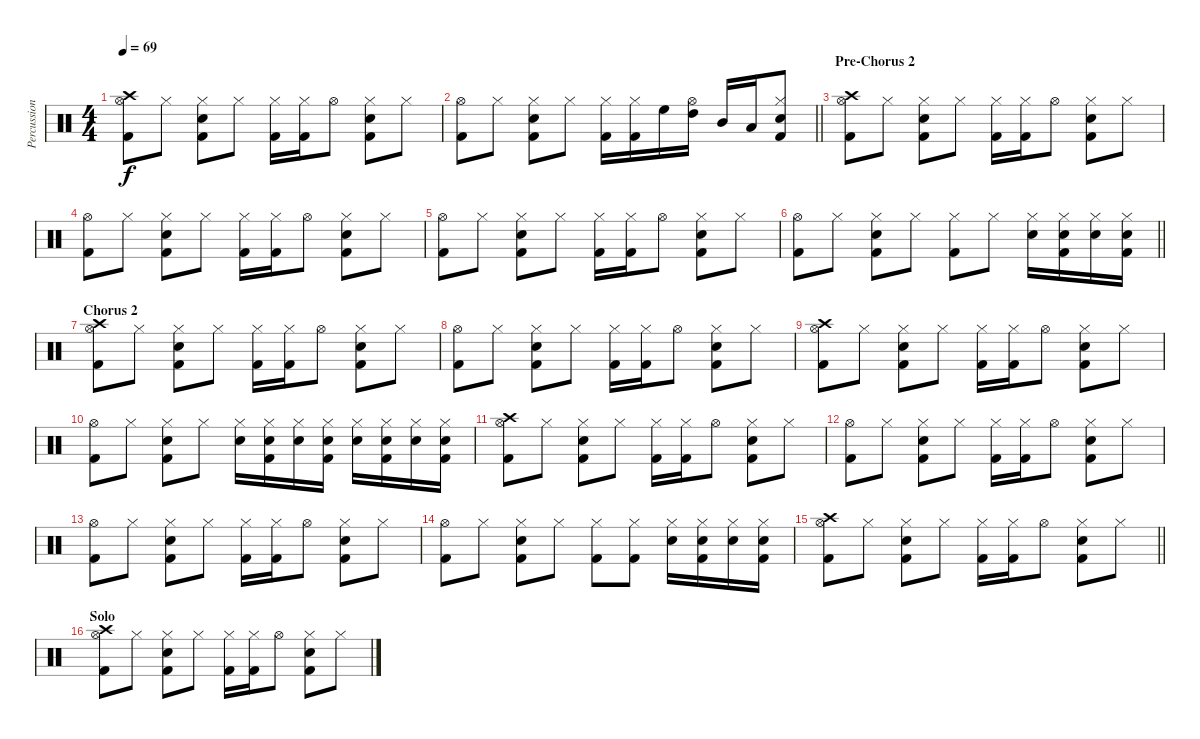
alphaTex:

\track ("Percussion: Mark Williams" "Percussion") {instrument percussion}
\staff {score}
\articulation defaults
\ts (4 4)
\tempo 69
\clef neutral
\ks c
("Crash high (hit)" "Hi-Hat (open)" "Kick (hit) 2").8{dy f} "Hi-Hat (closed)".8 ("Hi-Hat (closed)" "Snare (hit) 2" "Kick (hit) 2").8 "Hi-Hat (closed)".8 ("Hi-Hat (closed)" "Kick (hit) 2").16 ("Hi-Hat (closed)" "Kick (hit) 2").16 "Hi-Hat (open)".8 ("Hi-Hat (closed)" "Snare (hit) 2" "Kick (hit) 2").8 "Hi-Hat (closed)".8 |
\barLineRight lightlight
("Hi-Hat (open)" "Kick (hit) 2").8 "Hi-Hat (closed)".8 ("Hi-Hat (closed)" "Snare (hit) 2" "Kick (hit) 2").8 "Hi-Hat (closed)".8 ("Hi-Hat (closed)" "Kick (hit) 2").16 ("Hi-Hat (closed)" "Kick (hit) 2").16 "High Floor Tom (hit)".16 ("Hi-Hat (open)" "High Tom (hit)").16 "Mid Tom (hit)".16 "Low Tom (hit)".16 ("Hi-Hat (closed)" "Snare (hit) 2" "Kick (hit) 2").8 |
\section ("" "Pre-Chorus 2")
("Crash high (hit)" "Hi-Hat (open)" "Kick (hit) 2").8 "Hi-Hat (closed)".8 ("Hi-Hat (closed)" "Snare (hit) 2" "Kick (hit) 2").8 "Hi-Hat (closed)".8 ("Hi-Hat (closed)" "Kick (hit) 2").16 ("Hi-Hat (closed)" "Kick (hit) 2").16 "Hi-Hat (open)".8 ("Hi-Hat (closed)" "Snare (hit) 2" "Kick (hit) 2").8 "Hi-Hat (closed)".8 |
("Hi-Hat (open)" "Kick (hit) 2").8 "Hi-Hat (closed)".8 ("Hi-Hat (closed)" "Snare (hit) 2" "Kick (hit) 2").8 "Hi-Hat (closed)".8 ("Hi-Hat (closed)" "Kick (hit) 2").16 ("Hi-Hat (closed)" "Kick (hit) 2").16 "Hi-Hat (open)".8 ("Hi-Hat (closed)" "Snare (hit) 2" "Kick (hit) 2").8 "Hi-Hat (closed)".8 |
("Hi-Hat (open)" "Kick (hit) 2").8 "Hi-Hat (closed)".8 ("Hi-Hat (closed)" "Snare (hit) 2" "Kick (hit) 2").8 "Hi-Hat (closed)".8 ("Hi-Hat (closed)" "Kick (hit) 2").16 ("Hi-Hat (closed)" "Kick (hit) 2").16 "Hi-Hat (open)".8 ("Hi-Hat (closed)" "Snare (hit) 2" "Kick (hit) 2").8 "Hi-Hat (closed)".8 |
\barLineRight lightlight
("Hi-Hat (open)" "Kick (hit) 2").8 "Hi-Hat (closed)".8 ("Hi-Hat (closed)" "Snare (hit) 2" "Kick (hit) 2").8 "Hi-Hat (closed)".8 ("Hi-Hat (closed)" "Kick (hit) 2").8 "Hi-Hat (closed)".8 ("Hi-Hat (closed)" "Snare (hit) 2").16 ("Hi-Hat (closed)" "Snare (hit) 2" "Kick (hit) 2").16 ("Hi-Hat (closed)" "Snare (hit) 2").16 ("Hi-Hat (closed)" "Snare (hit) 2" "Kick (hit) 2").16 |
\section ("" "Chorus 2")
("Crash high (hit)" "Hi-Hat (open)" "Kick (hit) 2").8 "Hi-Hat (closed)".8 ("Hi-Hat (closed)" "Snare (hit) 2" "Kick (hit) 2").8 "Hi-Hat (closed)".8 ("Hi-Hat (closed)" "Kick (hit) 2").16 ("Hi-Hat (closed)" "Kick (hit) 2").16 "Hi-Hat (open)".8 ("Hi-Hat (closed)" "Snare (hit) 2" "Kick (hit) 2").8 "Hi-Hat (closed)".8 |
("Hi-Hat (open)" "Kick (hit) 2").8 "Hi-Hat (closed)".8 ("Hi-Hat (closed)" "Snare (hit) 2" "Kick (hit) 2").8 "Hi-Hat (closed)".8 ("Hi-Hat (closed)" "Kick (hit) 2").16 ("Hi-Hat (closed)" "Kick (hit) 2").16 "Hi-Hat (open)".8 ("Hi-Hat (closed)" "Snare (hit) 2" "Kick (hit) 2").8 "Hi-Hat (closed)".8 |
("Crash high (hit)" "Hi-Hat (open)" "Kick (hit) 2").8 "Hi-Hat (closed)".8 ("Hi-Hat (closed)" "Snare (hit) 2" "Kick (hit) 2").8 "Hi-Hat (closed)".8 ("Hi-Hat (closed)" "Kick (hit) 2").16 ("Hi-Hat (closed)" "Kick (hit) 2").16 "Hi-Hat (open)".8 ("Hi-Hat (closed)" "Snare (hit) 2" "Kick (hit) 2").8 "Hi-Hat (closed)".8 |
("Hi-Hat (open)" "Kick (hit) 2").8 "Hi-Hat (closed)".8 ("Hi-Hat (closed)" "Snare (hit) 2" "Kick (hit) 2").8 "Hi-Hat (closed)".8 ("Hi-Hat (closed)" "Snare (hit) 2").16 ("Hi-Hat (closed)" "Snare (hit) 2" "Kick (hit) 2").16 ("Hi-Hat (closed)" "Snare (hit) 2").16 ("Hi-Hat (closed)" "Snare (hit) 2" "Kick (hit) 2").16 ("Hi-Hat (closed)" "Snare (hit) 2").16 ("Hi-Hat (closed)" "Snare (hit) 2" "Kick (hit) 2").16 ("Hi-Hat (closed)" "Snare (hit) 2").16 ("Hi-Hat (closed)" "Snare (hit) 2" "Kick (hit) 2").16 |
("Crash high (hit)" "Hi-Hat (open)" "Kick (hit) 2").8 "Hi-Hat (closed)".8 ("Hi-Hat (closed)" "Snare (hit) 2" "Kick (hit) 2").8 "Hi-Hat (closed)".8 ("Hi-Hat (closed)" "Kick (hit) 2").16 ("Hi-Hat (closed)" "Kick (hit) 2").16 "Hi-Hat (open)".8 ("Hi-Hat (closed)" "Snare (hit) 2" "Kick (hit) 2").8 "Hi-Hat (closed)".8 |
("Hi-Hat (open)" "Kick (hit) 2").8 "Hi-Hat (closed)".8 ("Hi-Hat (closed)" "Snare (hit) 2" "Kick (hit) 2").8 "Hi-Hat (closed)".8 ("Hi-Hat (closed)" "Kick (hit) 2").16 ("Hi-Hat (closed)" "Kick (hit) 2").16 "Hi-Hat (open)".8 ("Hi-Hat (closed)" "Snare (hit) 2" "Kick (hit) 2").8 "Hi-Hat (closed)".8 |
("Hi-Hat (open)" "Kick (hit) 2").8 "Hi-Hat (closed)".8 ("Hi-Hat (closed)" "Snare (hit) 2" "Kick (hit) 2").8 "Hi-Hat (closed)".8 ("Hi-Hat (closed)" "Kick (hit) 2").16 ("Hi-Hat (closed)" "Kick (hit) 2").16 "Hi-Hat (open)".8 ("Hi-Hat (closed)" "Snare (hit) 2" "Kick (hit) 2").8 "Hi-Hat (closed)".8 |
("Hi-Hat (open)" "Kick (hit) 2").8 "Hi-Hat (closed)".8 ("Hi-Hat (closed)" "Snare (hit) 2" "Kick (hit) 2").8 "Hi-Hat (closed)".8 ("Hi-Hat (closed)" "Kick (hit) 2").8 ("Hi-Hat (closed)" "Kick (hit) 2").8 ("Hi-Hat (closed)" "Snare (hit) 2").16 ("Hi-Hat (closed)" "Snare (hit) 2" "Kick (hit) 2").16 ("Hi-Hat (closed)" "Snare (hit) 2").16 ("Hi-Hat (closed)" "Snare (hit) 2" "Kick (hit) 2").16 |
\barLineRight lightlight
("Crash high (hit)" "Hi-Hat (open)" "Kick (hit) 2").8 "Hi-Hat (closed)".8 ("Hi-Hat (closed)" "Snare (hit) 2" "Kick (hit) 2").8 "Hi-Hat (closed)".8 ("Hi-Hat (closed)" "Kick (hit) 2").16 ("Hi-Hat (closed)" "Kick (hit) 2").16 "Hi-Hat (open)".8 ("Hi-Hat (closed)" "Snare (hit) 2" "Kick (hit) 2").8 "Hi-Hat (closed)".8 |
\section ("" "Solo")
("Crash high (hit)" "Hi-Hat (open)" "Kick (hit) 2").8 "Hi-Hat (closed)".8 ("Hi-Hat (closed)" "Snare (hit) 2" "Kick (hit) 2").8 "Hi-Hat (closed)".8 ("Hi-Hat (closed)" "Kick (hit) 2").16 ("Hi-Hat (closed)" "Kick (hit) 2").16 "Hi-Hat (open)".8 ("Hi-Hat (closed)" "Snare (hit) 2" "Kick (hit) 2").8 "Hi-Hat (closed)".8
